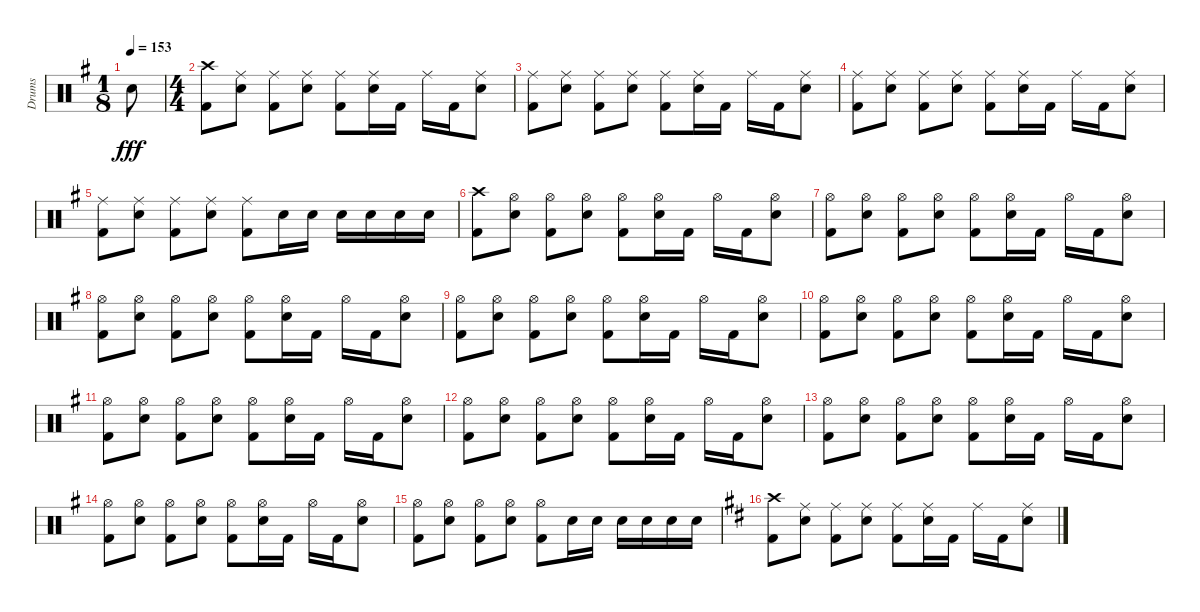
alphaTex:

\track ("Drums" "Drums") {instrument percussion}
\staff {score}
\articulation defaults
\ts (1 8)
\tempo 153
\clef neutral
\ks g "Electric Snare (hit)".8{dy fff}
|
\ts (4 4)
("Crash high (hit)" "Kick (hit) 2").8 ("Ride (middle)" "Electric Snare (hit)").8 ("Ride (middle)" "Kick (hit) 2").8 ("Ride (middle)" "Electric Snare (hit)").8 ("Ride (middle)" "Kick (hit) 2").8 ("Ride (middle)" "Electric Snare (hit)").16 "Kick (hit) 2".16 "Ride (middle)".16 "Kick (hit) 2".16 ("Ride (middle)" "Electric Snare (hit)").8 |
("Ride (middle)" "Kick (hit) 2").8 ("Ride (middle)" "Electric Snare (hit)").8 ("Ride (middle)" "Kick (hit) 2").8 ("Ride (middle)" "Electric Snare (hit)").8 ("Ride (middle)" "Kick (hit) 2").8 ("Ride (middle)" "Electric Snare (hit)").16 "Kick (hit) 2".16 "Ride (middle)".16 "Kick (hit) 2".16 ("Ride (middle)" "Electric Snare (hit)").8 |
("Ride (middle)" "Kick (hit) 2").8 ("Ride (middle)" "Electric Snare (hit)").8 ("Ride (middle)" "Kick (hit) 2").8 ("Ride (middle)" "Electric Snare (hit)").8 ("Ride (middle)" "Kick (hit) 2").8 ("Ride (middle)" "Electric Snare (hit)").16 "Kick (hit) 2".16 "Ride (middle)".16 "Kick (hit) 2".16 ("Ride (middle)" "Electric Snare (hit)").8 |
("Ride (middle)" "Kick (hit) 2").8 ("Ride (middle)" "Electric Snare (hit)").8 ("Ride (middle)" "Kick (hit) 2").8 ("Ride (middle)" "Electric Snare (hit)").8 ("Ride (middle)" "Kick (hit) 2").8 "Electric Snare (hit)".16 "Electric Snare (hit)".16 "Electric Snare (hit)".16 "Electric Snare (hit)".16 "Electric Snare (hit)".16 "Electric Snare (hit)".16 |
("Crash high (hit)" "Kick (hit) 2").8 ("Hi-Hat (open)" "Electric Snare (hit)").8 ("Hi-Hat (open)" "Kick (hit) 2").8 ("Hi-Hat (open)" "Electric Snare (hit)").8 ("Hi-Hat (open)" "Kick (hit) 2").8 ("Hi-Hat (open)" "Electric Snare (hit)").16 "Kick (hit) 2".16 "Hi-Hat (open)".16 "Kick (hit) 2".16 ("Hi-Hat (open)" "Electric Snare (hit)").8 |
("Hi-Hat (open)" "Kick (hit) 2").8 ("Hi-Hat (open)" "Electric Snare (hit)").8 ("Hi-Hat (open)" "Kick (hit) 2").8 ("Hi-Hat (open)" "Electric Snare (hit)").8 ("Hi-Hat (open)" "Kick (hit) 2").8 ("Hi-Hat (open)" "Electric Snare (hit)").16 "Kick (hit) 2".16 "Hi-Hat (open)".16 "Kick (hit) 2".16 ("Hi-Hat (open)" "Electric Snare (hit)").8 |
("Hi-Hat (open)" "Kick (hit) 2").8 ("Hi-Hat (open)" "Electric Snare (hit)").8 ("Hi-Hat (open)" "Kick (hit) 2").8 ("Hi-Hat (open)" "Electric Snare (hit)").8 ("Hi-Hat (open)" "Kick (hit) 2").8 ("Hi-Hat (open)" "Electric Snare (hit)").16 "Kick (hit) 2".16 "Hi-Hat (open)".16 "Kick (hit) 2".16 ("Hi-Hat (open)" "Electric Snare (hit)").8 |
("Hi-Hat (open)" "Kick (hit) 2").8 ("Hi-Hat (open)" "Electric Snare (hit)").8 ("Hi-Hat (open)" "Kick (hit) 2").8 ("Hi-Hat (open)" "Electric Snare (hit)").8 ("Hi-Hat (open)" "Kick (hit) 2").8 ("Hi-Hat (open)" "Electric Snare (hit)").16 "Kick (hit) 2".16 "Hi-Hat (open)".16 "Kick (hit) 2".16 ("Hi-Hat (open)" "Electric Snare (hit)").8 |
("Hi-Hat (open)" "Kick (hit) 2").8 ("Hi-Hat (open)" "Electric Snare (hit)").8 ("Hi-Hat (open)" "Kick (hit) 2").8 ("Hi-Hat (open)" "Electric Snare (hit)").8 ("Hi-Hat (open)" "Kick (hit) 2").8 ("Hi-Hat (open)" "Electric Snare (hit)").16 "Kick (hit) 2".16 "Hi-Hat (open)".16 "Kick (hit) 2".16 ("Hi-Hat (open)" "Electric Snare (hit)").8 |
("Hi-Hat (open)" "Kick (hit) 2").8 ("Hi-Hat (open)" "Electric Snare (hit)").8 ("Hi-Hat (open)" "Kick (hit) 2").8 ("Hi-Hat (open)" "Electric Snare (hit)").8 ("Hi-Hat (open)" "Kick (hit) 2").8 ("Hi-Hat (open)" "Electric Snare (hit)").16 "Kick (hit) 2".16 "Hi-Hat (open)".16 "Kick (hit) 2".16 ("Hi-Hat (open)" "Electric Snare (hit)").8 |
("Hi-Hat (open)" "Kick (hit) 2").8 ("Hi-Hat (open)" "Electric Snare (hit)").8 ("Hi-Hat (open)" "Kick (hit) 2").8 ("Hi-Hat (open)" "Electric Snare (hit)").8 ("Hi-Hat (open)" "Kick (hit) 2").8 ("Hi-Hat (open)" "Electric Snare (hit)").16 "Kick (hit) 2".16 "Hi-Hat (open)".16 "Kick (hit) 2".16 ("Hi-Hat (open)" "Electric Snare (hit)").8 |
("Hi-Hat (open)" "Kick (hit) 2").8 ("Hi-Hat (open)" "Electric Snare (hit)").8 ("Hi-Hat (open)" "Kick (hit) 2").8 ("Hi-Hat (open)" "Electric Snare (hit)").8 ("Hi-Hat (open)" "Kick (hit) 2").8 ("Hi-Hat (open)" "Electric Snare (hit)").16 "Kick (hit) 2".16 "Hi-Hat (open)".16 "Kick (hit) 2".16 ("Hi-Hat (open)" "Electric Snare (hit)").8 |
("Hi-Hat (open)" "Kick (hit) 2").8 ("Hi-Hat (open)" "Electric Snare (hit)").8 ("Hi-Hat (open)" "Kick (hit) 2").8 ("Hi-Hat (open)" "Electric Snare (hit)").8 ("Hi-Hat (open)" "Kick (hit) 2").8 ("Hi-Hat (open)" "Electric Snare (hit)").16 "Kick (hit) 2".16 "Hi-Hat (open)".16 "Kick (hit) 2".16 ("Hi-Hat (open)" "Electric Snare (hit)").8 |
("Hi-Hat (open)" "Kick (hit) 2").8 ("Hi-Hat (open)" "Electric Snare (hit)").8 ("Hi-Hat (open)" "Kick (hit) 2").8 ("Hi-Hat (open)" "Electric Snare (hit)").8 ("Hi-Hat (open)" "Kick (hit) 2").8 "Electric Snare (hit)".16 "Electric Snare (hit)".16 "Electric Snare (hit)".16 "Electric Snare (hit)".16 "Electric Snare (hit)".16 "Electric Snare (hit)".16 |
\ks d
("Crash high (hit)" "Kick (hit) 2").8 ("Ride (middle)" "Electric Snare (hit)").8 ("Ride (middle)" "Kick (hit) 2").8 ("Ride (middle)" "Electric Snare (hit)").8 ("Ride (middle)" "Kick (hit) 2").8 ("Ride (middle)" "Electric Snare (hit)").16 "Kick (hit) 2".16 "Ride (middle)".16 "Kick (hit) 2".16 ("Ride (middle)" "Electric Snare (hit)").8
